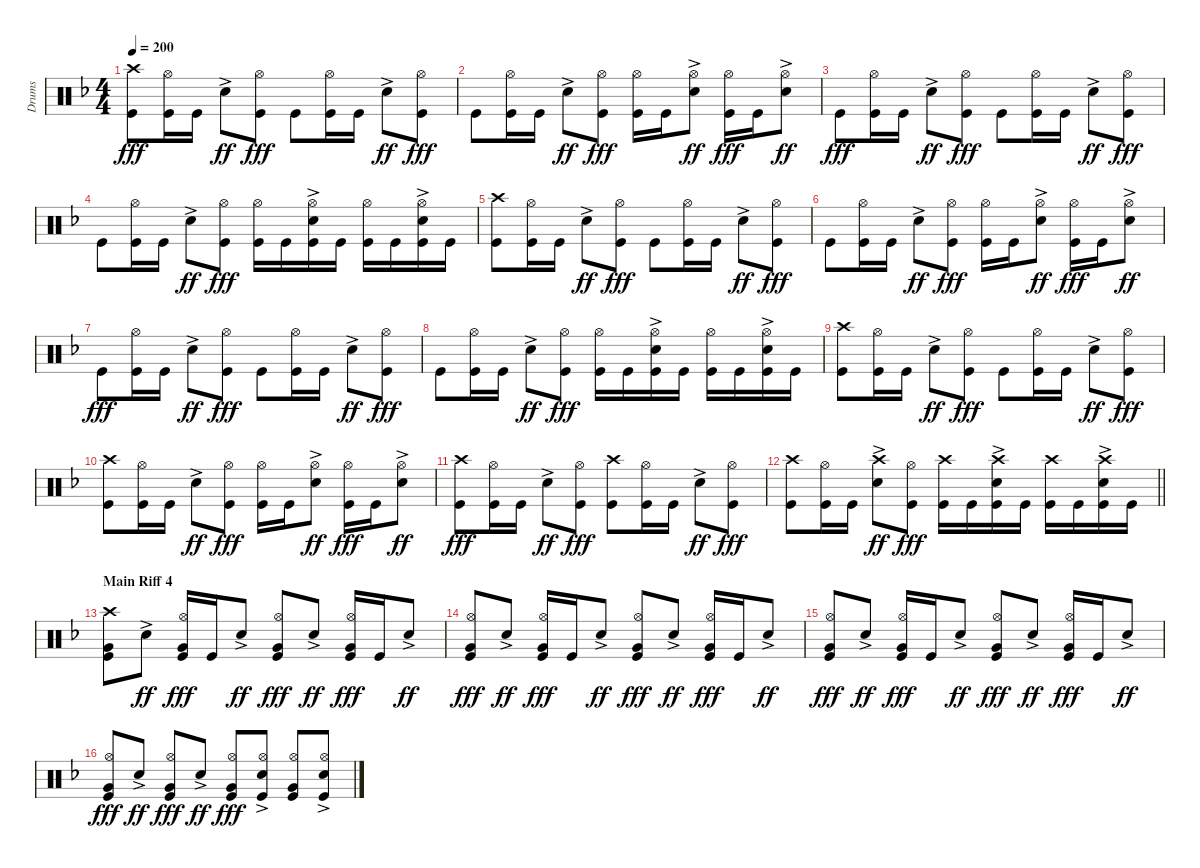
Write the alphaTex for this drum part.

\track ("Drums" "Drums") {instrument percussion bank 25}
\staff {score}
\articulation defaults
\ts (4 4)
\tempo 200
\clef neutral
\ks dminor
("Crash high (hit)" "Kick (hit)").8{dy fff} ("Hi-Hat (open)" "Kick (hit)").16 "Kick (hit)".16 "Snare (hit) 2"{ac}.8{dy ff} ("Hi-Hat (open)" "Kick (hit)").8{dy fff} "Kick (hit)".8 ("Hi-Hat (open)" "Kick (hit)").16 "Kick (hit)".16 "Snare (hit) 2"{ac}.8{dy ff} ("Hi-Hat (open)" "Kick (hit)").8{dy fff} |
"Kick (hit)".8 ("Hi-Hat (open)" "Kick (hit)").16 "Kick (hit)".16 "Snare (hit) 2"{ac}.8{dy ff} ("Hi-Hat (open)" "Kick (hit)").8{dy fff} ("Hi-Hat (open)" "Kick (hit)").16 "Kick (hit)".16 ("Hi-Hat (open)" "Snare (hit) 2"{ac}).8{dy ff} ("Hi-Hat (open)" "Kick (hit)").16{dy fff} "Kick (hit)".16 ("Hi-Hat (open)" "Snare (hit) 2"{ac}).8{dy ff} |
"Kick (hit)".8{dy fff} ("Hi-Hat (open)" "Kick (hit)").16 "Kick (hit)".16 "Snare (hit) 2"{ac}.8{dy ff} ("Hi-Hat (open)" "Kick (hit)").8{dy fff} "Kick (hit)".8 ("Hi-Hat (open)" "Kick (hit)").16 "Kick (hit)".16 "Snare (hit) 2"{ac}.8{dy ff} ("Hi-Hat (open)" "Kick (hit)").8{dy fff} |
"Kick (hit)".8 ("Hi-Hat (open)" "Kick (hit)").16 "Kick (hit)".16 "Snare (hit) 2"{ac}.8{dy ff} ("Hi-Hat (open)" "Kick (hit)").8{dy fff} ("Hi-Hat (open)" "Kick (hit)").16 "Kick (hit)".16 ("Hi-Hat (open)" "Snare (hit) 2"{ac} "Kick (hit)").16 "Kick (hit)".16 ("Hi-Hat (open)" "Kick (hit)").16 "Kick (hit)".16 ("Hi-Hat (open)" "Snare (hit) 2"{ac} "Kick (hit)").16 "Kick (hit)".16 |
("Crash high (hit)" "Kick (hit)").8 ("Hi-Hat (open)" "Kick (hit)").16 "Kick (hit)".16 "Snare (hit) 2"{ac}.8{dy ff} ("Hi-Hat (open)" "Kick (hit)").8{dy fff} "Kick (hit)".8 ("Hi-Hat (open)" "Kick (hit)").16 "Kick (hit)".16 "Snare (hit) 2"{ac}.8{dy ff} ("Hi-Hat (open)" "Kick (hit)").8{dy fff} |
"Kick (hit)".8 ("Hi-Hat (open)" "Kick (hit)").16 "Kick (hit)".16 "Snare (hit) 2"{ac}.8{dy ff} ("Hi-Hat (open)" "Kick (hit)").8{dy fff} ("Hi-Hat (open)" "Kick (hit)").16 "Kick (hit)".16 ("Hi-Hat (open)" "Snare (hit) 2"{ac}).8{dy ff} ("Hi-Hat (open)" "Kick (hit)").16{dy fff} "Kick (hit)".16 ("Hi-Hat (open)" "Snare (hit) 2"{ac}).8{dy ff} |
"Kick (hit)".8{dy fff} ("Hi-Hat (open)" "Kick (hit)").16 "Kick (hit)".16 "Snare (hit) 2"{ac}.8{dy ff} ("Hi-Hat (open)" "Kick (hit)").8{dy fff} "Kick (hit)".8 ("Hi-Hat (open)" "Kick (hit)").16 "Kick (hit)".16 "Snare (hit) 2"{ac}.8{dy ff} ("Hi-Hat (open)" "Kick (hit)").8{dy fff} |
"Kick (hit)".8 ("Hi-Hat (open)" "Kick (hit)").16 "Kick (hit)".16 "Snare (hit) 2"{ac}.8{dy ff} ("Hi-Hat (open)" "Kick (hit)").8{dy fff} ("Hi-Hat (open)" "Kick (hit)").16 "Kick (hit)".16 ("Hi-Hat (open)" "Snare (hit) 2"{ac} "Kick (hit)").16 "Kick (hit)".16 ("Hi-Hat (open)" "Kick (hit)").16 "Kick (hit)".16 ("Hi-Hat (open)" "Snare (hit) 2"{ac} "Kick (hit)").16 "Kick (hit)".16 |
("Crash high (hit)" "Kick (hit)").8 ("Hi-Hat (open)" "Kick (hit)").16 "Kick (hit)".16 "Snare (hit) 2"{ac}.8{dy ff} ("Hi-Hat (open)" "Kick (hit)").8{dy fff} "Kick (hit)".8 ("Hi-Hat (open)" "Kick (hit)").16 "Kick (hit)".16 "Snare (hit) 2"{ac}.8{dy ff} ("Hi-Hat (open)" "Kick (hit)").8{dy fff} |
("Crash high (hit)" "Kick (hit)").8 ("Hi-Hat (open)" "Kick (hit)").16 "Kick (hit)".16 "Snare (hit) 2"{ac}.8{dy ff} ("Hi-Hat (open)" "Kick (hit)").8{dy fff} ("Hi-Hat (open)" "Kick (hit)").16 "Kick (hit)".16 ("Hi-Hat (open)" "Snare (hit) 2"{ac}).8{dy ff} ("Hi-Hat (open)" "Kick (hit)").16{dy fff} "Kick (hit)".16 ("Hi-Hat (open)" "Snare (hit) 2"{ac}).8{dy ff} |
("Crash high (hit)" "Kick (hit)").8{dy fff} ("Hi-Hat (open)" "Kick (hit)").16 "Kick (hit)".16 "Snare (hit) 2"{ac}.8{dy ff} ("Hi-Hat (open)" "Kick (hit)").8{dy fff} ("Crash high (hit)" "Kick (hit)").8 ("Hi-Hat (open)" "Kick (hit)").16 "Kick (hit)".16 "Snare (hit) 2"{ac}.8{dy ff} ("Hi-Hat (open)" "Kick (hit)").8{dy fff} |
\barLineRight lightlight
("Crash high (hit)" "Kick (hit)").8 ("Hi-Hat (open)" "Kick (hit)").16 "Kick (hit)".16 ("Crash high (hit)" "Snare (hit) 2"{ac}).8{dy ff} ("Hi-Hat (open)" "Kick (hit)").8{dy fff} ("Crash high (hit)" "Kick (hit)").16 "Kick (hit)".16 ("Crash high (hit)" "Snare (hit) 2"{ac} "Kick (hit)").16 "Kick (hit)".16 ("Crash high (hit)" "Kick (hit)").16 "Kick (hit)".16 ("Crash high (hit)" "Snare (hit) 2"{ac} "Kick (hit)").16 "Kick (hit)".16 |
\section ("" "Main Riff 4")
("Crash high (hit)" "Very Low Tom (hit)" "Kick (hit)").8 "Snare (hit) 2"{ac}.8{dy ff} ("Hi-Hat (open)" "Very Low Tom (hit)" "Kick (hit)").16{dy fff} "Kick (hit)".16 "Snare (hit) 2"{ac}.8{dy ff} ("Hi-Hat (open)" "Very Low Tom (hit)" "Kick (hit)").8{dy fff} "Snare (hit) 2"{ac}.8{dy ff} ("Hi-Hat (open)" "Very Low Tom (hit)" "Kick (hit)").16{dy fff} "Kick (hit)".16 "Snare (hit) 2"{ac}.8{dy ff} |
("Hi-Hat (open)" "Very Low Tom (hit)" "Kick (hit)").8{dy fff} "Snare (hit) 2"{ac}.8{dy ff} ("Hi-Hat (open)" "Very Low Tom (hit)" "Kick (hit)").16{dy fff} "Kick (hit)".16 "Snare (hit) 2"{ac}.8{dy ff} ("Hi-Hat (open)" "Very Low Tom (hit)" "Kick (hit)").8{dy fff} "Snare (hit) 2"{ac}.8{dy ff} ("Hi-Hat (open)" "Very Low Tom (hit)" "Kick (hit)").16{dy fff} "Kick (hit)".16 "Snare (hit) 2"{ac}.8{dy ff} |
("Hi-Hat (open)" "Very Low Tom (hit)" "Kick (hit)").8{dy fff} "Snare (hit) 2"{ac}.8{dy ff} ("Hi-Hat (open)" "Very Low Tom (hit)" "Kick (hit)").16{dy fff} "Kick (hit)".16 "Snare (hit) 2"{ac}.8{dy ff} ("Hi-Hat (open)" "Very Low Tom (hit)" "Kick (hit)").8{dy fff} "Snare (hit) 2"{ac}.8{dy ff} ("Hi-Hat (open)" "Very Low Tom (hit)" "Kick (hit)").16{dy fff} "Kick (hit)".16 "Snare (hit) 2"{ac}.8{dy ff} |
("Hi-Hat (open)" "Very Low Tom (hit)" "Kick (hit)").8{dy fff} "Snare (hit) 2"{ac}.8{dy ff} ("Hi-Hat (open)" "Very Low Tom (hit)" "Kick (hit)").8{dy fff} "Snare (hit) 2"{ac}.8{dy ff} ("Hi-Hat (open)" "Very Low Tom (hit)" "Kick (hit)").8{dy fff} ("Hi-Hat (open)" "Snare (hit) 2"{ac} "Kick (hit)").8 ("Hi-Hat (open)" "Very Low Tom (hit)" "Kick (hit)").8 ("Hi-Hat (open)" "Snare (hit) 2"{ac} "Kick (hit)").8
